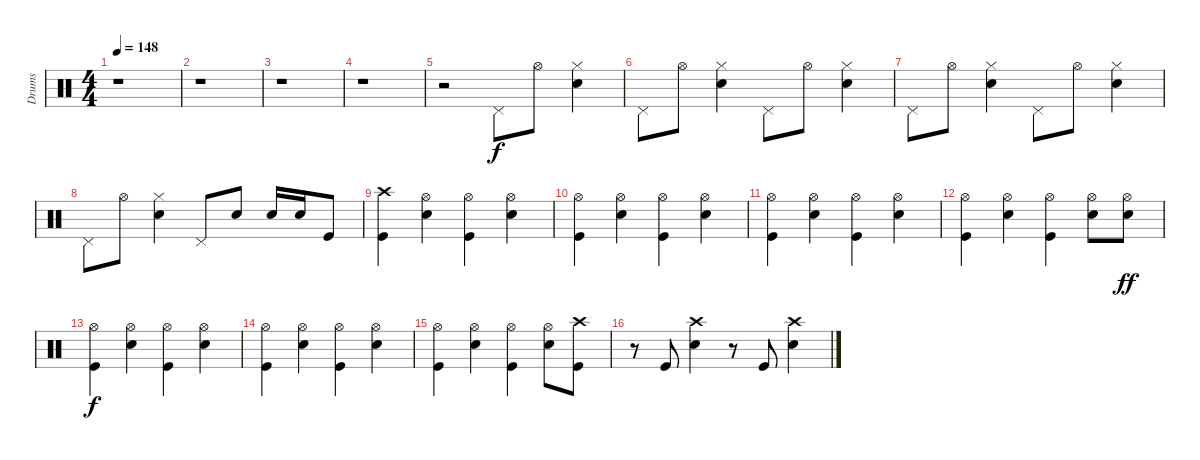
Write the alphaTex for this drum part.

\track ("Drums" "Drums") {instrument percussion}
\staff {score}
\articulation defaults
\ts (4 4)
\tempo 148
\clef neutral
\ks c
r.1{dy f} |
r.1 |
r.1 |
r.1 |
r.2 "Pedal Hi-Hat (hit)".8 "Hi-Hat (open)".8 ("Hi-Hat (closed)" "Snare (hit) 2").4 |
"Pedal Hi-Hat (hit)".8 "Hi-Hat (open)".8 ("Hi-Hat (closed)" "Snare (hit) 2").4 "Pedal Hi-Hat (hit)".8 "Hi-Hat (open)".8 ("Hi-Hat (closed)" "Snare (hit) 2").4 |
"Pedal Hi-Hat (hit)".8 "Hi-Hat (open)".8 ("Hi-Hat (closed)" "Snare (hit) 2").4 "Pedal Hi-Hat (hit)".8 "Hi-Hat (open)".8 ("Hi-Hat (closed)" "Snare (hit) 2").4 |
"Pedal Hi-Hat (hit)".8 "Hi-Hat (open)".8 ("Hi-Hat (closed)" "Snare (hit) 2").4 "Pedal Hi-Hat (hit)".8 "Snare (hit) 2".8 "Snare (hit) 2".16 "Snare (hit) 2".16 "Kick (hit)".8 |
("Crash high (hit)" "Kick (hit)").4 ("Hi-Hat (open)" "Snare (hit) 2").4 ("Hi-Hat (open)" "Kick (hit)").4 ("Hi-Hat (open)" "Snare (hit) 2").4 |
("Hi-Hat (open)" "Kick (hit)").4 ("Hi-Hat (open)" "Snare (hit) 2").4 ("Hi-Hat (open)" "Kick (hit)").4 ("Hi-Hat (open)" "Snare (hit) 2").4 |
("Hi-Hat (open)" "Kick (hit)").4 ("Hi-Hat (open)" "Snare (hit) 2").4 ("Hi-Hat (open)" "Kick (hit)").4 ("Hi-Hat (open)" "Snare (hit) 2").4 |
("Hi-Hat (open)" "Kick (hit)").4 ("Hi-Hat (open)" "Snare (hit) 2").4 ("Hi-Hat (open)" "Kick (hit)").4 ("Hi-Hat (open)" "Snare (hit) 2").8 ("Hi-Hat (open)" "Snare (hit) 2").8{dy ff} |
("Hi-Hat (open)" "Kick (hit)").4{dy f} ("Hi-Hat (open)" "Snare (hit) 2").4 ("Hi-Hat (open)" "Kick (hit)").4 ("Hi-Hat (open)" "Snare (hit) 2").4 |
("Hi-Hat (open)" "Kick (hit)").4 ("Hi-Hat (open)" "Snare (hit) 2").4 ("Hi-Hat (open)" "Kick (hit)").4 ("Hi-Hat (open)" "Snare (hit) 2").4 |
("Hi-Hat (open)" "Kick (hit)").4 ("Hi-Hat (open)" "Snare (hit) 2").4 ("Hi-Hat (open)" "Kick (hit)").4 ("Hi-Hat (open)" "Snare (hit) 2").8 ("Crash high (hit)" "Kick (hit)").8 |
r.8 "Kick (hit)".8 ("Crash high (hit)" "Snare (hit) 2").4 r.8 "Kick (hit)".8 ("Crash high (hit)" "Snare (hit) 2").4
